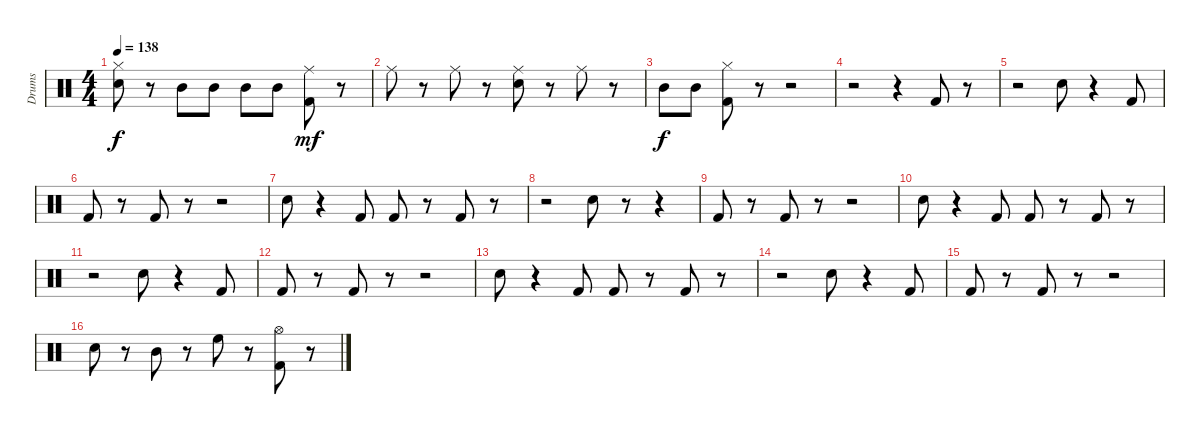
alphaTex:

\track ("Drums" "Drums") {instrument percussion}
\staff {score}
\articulation defaults
\ts (4 4)
\tempo 138
\clef neutral
\ks c
("Hi-Hat (closed)" "Snare (hit) 2").8{dy f} r.8 "Mid Tom (hit)".8 "Mid Tom (hit)".8 "Mid Tom (hit)".8 "Mid Tom (hit)".8 ("Ride (middle)" "Kick (hit) 2").8{dy mf} r.8 |
"Ride (middle)".8 r.8 "Ride (middle)".8 r.8 ("Ride (middle)" "Snare (hit) 2").8 r.8 "Ride (middle)".8 r.8 |
"Mid Tom (hit)".8{dy f} "Mid Tom (hit)".8 ("Hi-Hat (closed)" "Kick (hit) 2").8 r.8 r.2 |
r.2 r.4 "Kick (hit) 2".8 r.8 |
r.2 "Snare (hit) 2".8 r.4 "Kick (hit) 2".8 |
"Kick (hit) 2".8 r.8 "Kick (hit) 2".8 r.8 r.2 |
"Snare (hit) 2".8 r.4 "Kick (hit) 2".8 "Kick (hit) 2".8 r.8 "Kick (hit) 2".8 r.8 |
r.2 "Snare (hit) 2".8 r.8 r.4 |
"Kick (hit) 2".8 r.8 "Kick (hit) 2".8 r.8 r.2 |
"Snare (hit) 2".8 r.4 "Kick (hit) 2".8 "Kick (hit) 2".8 r.8 "Kick (hit) 2".8 r.8 |
r.2 "Snare (hit) 2".8 r.4 "Kick (hit) 2".8 |
"Kick (hit) 2".8 r.8 "Kick (hit) 2".8 r.8 r.2 |
"Snare (hit) 2".8 r.4 "Kick (hit) 2".8 "Kick (hit) 2".8 r.8 "Kick (hit) 2".8 r.8 |
r.2 "Snare (hit) 2".8 r.4 "Kick (hit) 2".8 |
"Kick (hit) 2".8 r.8 "Kick (hit) 2".8 r.8 r.2 |
"Snare (hit) 2".8 r.8 "Mid Tom (hit)".8 r.8 "High Floor Tom (hit)".8 r.8 ("Hi-Hat (open)" "Kick (hit) 2").8 r.8
